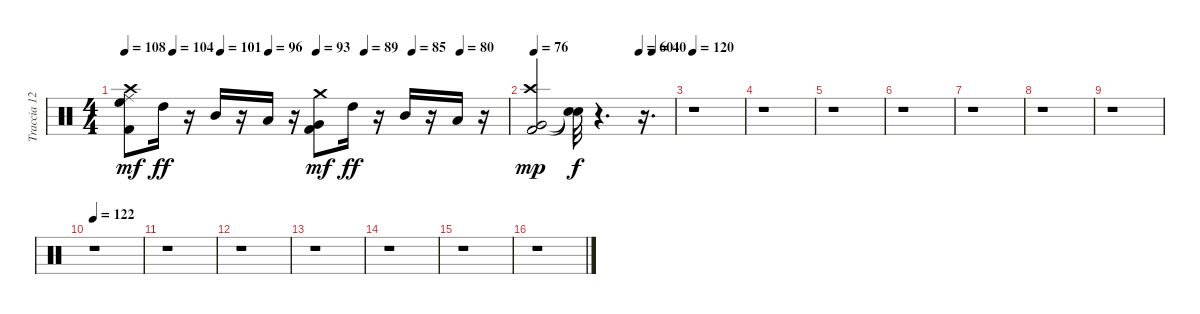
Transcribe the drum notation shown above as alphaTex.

\track ("Traccia 12-13-14-15-16-17-18" "Traccia 12") {instrument percussion}
\staff {score}
\articulation defaults
\ts (4 4)
\tempo 108
\tempo (104 0.125)
\tempo (101 0.25)
\tempo (96 0.375)
\tempo (93 0.5)
\tempo (89 0.625)
\tempo (85 0.75)
\tempo (80 0.875)
\clef neutral
\ks c
("High Floor Tom (hit)" "Kick (hit) 2" "Ride (middle)" "Crash high (hit)").8{dy mf} "High Tom (hit)".16{dy ff} r.16 "Mid Tom (hit)".16 r.16 "Low Tom (hit)".16 r.16 ("Very Low Tom (hit)" "Kick (hit) 2" "Crash medium (hit)").8{dy mf} "High Tom (hit)".16{dy ff} r.16 "Mid Tom (hit)".16 r.16 "Low Tom (hit)".16 r.16 |
\tempo 76
\tempo (60 0.75)
\tempo (40 0.84375)
("Very Low Tom (hit)" "Kick (hit) 2" "Crash high (hit)").2{dy mp} ("Snare (hit)"{t} "Snare (hit)"{t}).32{dy f} r.4{d} r.16{d} |
\tempo 120
r.1 |
r.1 |
r.1 |
r.1 |
r.1 |
r.1 |
r.1 |
\tempo 122
r.1 |
r.1 |
r.1 |
r.1 |
r.1 |
r.1 |
r.1
